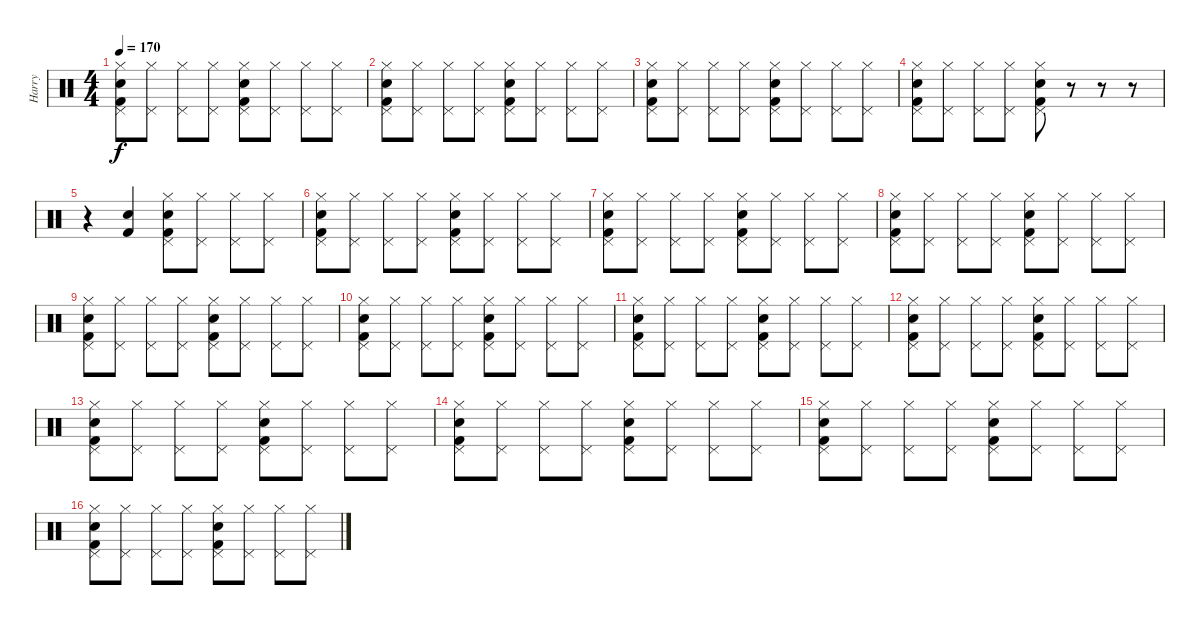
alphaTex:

\track ("Harry" "Harry") {instrument percussion}
\staff {score}
\articulation defaults
\ts (4 4)
\tempo 170
\clef neutral
\ks c
("Hi-Hat (closed)" "Pedal Hi-Hat (hit)" "Kick (hit) 2" "Snare (hit) 2").8{dy f} ("Hi-Hat (closed)" "Pedal Hi-Hat (hit)").8 ("Hi-Hat (closed)" "Pedal Hi-Hat (hit)").8 ("Hi-Hat (closed)" "Pedal Hi-Hat (hit)").8 ("Hi-Hat (closed)" "Pedal Hi-Hat (hit)" "Kick (hit) 2" "Snare (hit) 2").8 ("Hi-Hat (closed)" "Pedal Hi-Hat (hit)").8 ("Hi-Hat (closed)" "Pedal Hi-Hat (hit)").8 ("Hi-Hat (closed)" "Pedal Hi-Hat (hit)").8 |
("Hi-Hat (closed)" "Pedal Hi-Hat (hit)" "Kick (hit) 2" "Snare (hit) 2").8 ("Hi-Hat (closed)" "Pedal Hi-Hat (hit)").8 ("Hi-Hat (closed)" "Pedal Hi-Hat (hit)").8 ("Hi-Hat (closed)" "Pedal Hi-Hat (hit)").8 ("Hi-Hat (closed)" "Pedal Hi-Hat (hit)" "Kick (hit) 2" "Snare (hit) 2").8 ("Hi-Hat (closed)" "Pedal Hi-Hat (hit)").8 ("Hi-Hat (closed)" "Pedal Hi-Hat (hit)").8 ("Hi-Hat (closed)" "Pedal Hi-Hat (hit)").8 |
("Hi-Hat (closed)" "Pedal Hi-Hat (hit)" "Kick (hit) 2" "Snare (hit) 2").8 ("Hi-Hat (closed)" "Pedal Hi-Hat (hit)").8 ("Hi-Hat (closed)" "Pedal Hi-Hat (hit)").8 ("Hi-Hat (closed)" "Pedal Hi-Hat (hit)").8 ("Hi-Hat (closed)" "Pedal Hi-Hat (hit)" "Kick (hit) 2" "Snare (hit) 2").8 ("Hi-Hat (closed)" "Pedal Hi-Hat (hit)").8 ("Hi-Hat (closed)" "Pedal Hi-Hat (hit)").8 ("Hi-Hat (closed)" "Pedal Hi-Hat (hit)").8 |
("Hi-Hat (closed)" "Pedal Hi-Hat (hit)" "Kick (hit) 2" "Snare (hit) 2").8 ("Hi-Hat (closed)" "Pedal Hi-Hat (hit)").8 ("Hi-Hat (closed)" "Pedal Hi-Hat (hit)").8 ("Hi-Hat (closed)" "Pedal Hi-Hat (hit)").8 ("Hi-Hat (closed)" "Pedal Hi-Hat (hit)" "Kick (hit) 2" "Snare (hit) 2").8 r.8 r.8 r.8 |
r.4 ("Snare (hit) 2" "Kick (hit) 2").4 ("Hi-Hat (closed)" "Pedal Hi-Hat (hit)" "Kick (hit) 2" "Snare (hit) 2").8 ("Hi-Hat (closed)" "Pedal Hi-Hat (hit)").8 ("Hi-Hat (closed)" "Pedal Hi-Hat (hit)").8 ("Hi-Hat (closed)" "Pedal Hi-Hat (hit)").8 |
("Hi-Hat (closed)" "Pedal Hi-Hat (hit)" "Kick (hit) 2" "Snare (hit) 2").8 ("Hi-Hat (closed)" "Pedal Hi-Hat (hit)").8 ("Hi-Hat (closed)" "Pedal Hi-Hat (hit)").8 ("Hi-Hat (closed)" "Pedal Hi-Hat (hit)").8 ("Hi-Hat (closed)" "Pedal Hi-Hat (hit)" "Kick (hit) 2" "Snare (hit) 2").8 ("Hi-Hat (closed)" "Pedal Hi-Hat (hit)").8 ("Hi-Hat (closed)" "Pedal Hi-Hat (hit)").8 ("Hi-Hat (closed)" "Pedal Hi-Hat (hit)").8 |
("Hi-Hat (closed)" "Pedal Hi-Hat (hit)" "Kick (hit) 2" "Snare (hit) 2").8 ("Hi-Hat (closed)" "Pedal Hi-Hat (hit)").8 ("Hi-Hat (closed)" "Pedal Hi-Hat (hit)").8 ("Hi-Hat (closed)" "Pedal Hi-Hat (hit)").8 ("Hi-Hat (closed)" "Pedal Hi-Hat (hit)" "Kick (hit) 2" "Snare (hit) 2").8 ("Hi-Hat (closed)" "Pedal Hi-Hat (hit)").8 ("Hi-Hat (closed)" "Pedal Hi-Hat (hit)").8 ("Hi-Hat (closed)" "Pedal Hi-Hat (hit)").8 |
("Hi-Hat (closed)" "Pedal Hi-Hat (hit)" "Kick (hit) 2" "Snare (hit) 2").8 ("Hi-Hat (closed)" "Pedal Hi-Hat (hit)").8 ("Hi-Hat (closed)" "Pedal Hi-Hat (hit)").8 ("Hi-Hat (closed)" "Pedal Hi-Hat (hit)").8 ("Hi-Hat (closed)" "Pedal Hi-Hat (hit)" "Kick (hit) 2" "Snare (hit) 2").8 ("Hi-Hat (closed)" "Pedal Hi-Hat (hit)").8 ("Hi-Hat (closed)" "Pedal Hi-Hat (hit)").8 ("Hi-Hat (closed)" "Pedal Hi-Hat (hit)").8 |
("Hi-Hat (closed)" "Pedal Hi-Hat (hit)" "Kick (hit) 2" "Snare (hit) 2").8 ("Hi-Hat (closed)" "Pedal Hi-Hat (hit)").8 ("Hi-Hat (closed)" "Pedal Hi-Hat (hit)").8 ("Hi-Hat (closed)" "Pedal Hi-Hat (hit)").8 ("Hi-Hat (closed)" "Pedal Hi-Hat (hit)" "Kick (hit) 2" "Snare (hit) 2").8 ("Hi-Hat (closed)" "Pedal Hi-Hat (hit)").8 ("Hi-Hat (closed)" "Pedal Hi-Hat (hit)").8 ("Hi-Hat (closed)" "Pedal Hi-Hat (hit)").8 |
("Hi-Hat (closed)" "Pedal Hi-Hat (hit)" "Kick (hit) 2" "Snare (hit) 2").8 ("Hi-Hat (closed)" "Pedal Hi-Hat (hit)").8 ("Hi-Hat (closed)" "Pedal Hi-Hat (hit)").8 ("Hi-Hat (closed)" "Pedal Hi-Hat (hit)").8 ("Hi-Hat (closed)" "Pedal Hi-Hat (hit)" "Kick (hit) 2" "Snare (hit) 2").8 ("Hi-Hat (closed)" "Pedal Hi-Hat (hit)").8 ("Hi-Hat (closed)" "Pedal Hi-Hat (hit)").8 ("Hi-Hat (closed)" "Pedal Hi-Hat (hit)").8 |
("Hi-Hat (closed)" "Pedal Hi-Hat (hit)" "Kick (hit) 2" "Snare (hit) 2").8 ("Hi-Hat (closed)" "Pedal Hi-Hat (hit)").8 ("Hi-Hat (closed)" "Pedal Hi-Hat (hit)").8 ("Hi-Hat (closed)" "Pedal Hi-Hat (hit)").8 ("Hi-Hat (closed)" "Pedal Hi-Hat (hit)" "Kick (hit) 2" "Snare (hit) 2").8 ("Hi-Hat (closed)" "Pedal Hi-Hat (hit)").8 ("Hi-Hat (closed)" "Pedal Hi-Hat (hit)").8 ("Hi-Hat (closed)" "Pedal Hi-Hat (hit)").8 |
("Hi-Hat (closed)" "Pedal Hi-Hat (hit)" "Kick (hit) 2" "Snare (hit) 2").8 ("Hi-Hat (closed)" "Pedal Hi-Hat (hit)").8 ("Hi-Hat (closed)" "Pedal Hi-Hat (hit)").8 ("Hi-Hat (closed)" "Pedal Hi-Hat (hit)").8 ("Hi-Hat (closed)" "Pedal Hi-Hat (hit)" "Kick (hit) 2" "Snare (hit) 2").8 ("Hi-Hat (closed)" "Pedal Hi-Hat (hit)").8 ("Hi-Hat (closed)" "Pedal Hi-Hat (hit)").8 ("Hi-Hat (closed)" "Pedal Hi-Hat (hit)").8 |
("Hi-Hat (closed)" "Pedal Hi-Hat (hit)" "Kick (hit) 2" "Snare (hit) 2").8 ("Hi-Hat (closed)" "Pedal Hi-Hat (hit)").8 ("Hi-Hat (closed)" "Pedal Hi-Hat (hit)").8 ("Hi-Hat (closed)" "Pedal Hi-Hat (hit)").8 ("Hi-Hat (closed)" "Pedal Hi-Hat (hit)" "Kick (hit) 2" "Snare (hit) 2").8 ("Hi-Hat (closed)" "Pedal Hi-Hat (hit)").8 ("Hi-Hat (closed)" "Pedal Hi-Hat (hit)").8 ("Hi-Hat (closed)" "Pedal Hi-Hat (hit)").8 |
("Hi-Hat (closed)" "Pedal Hi-Hat (hit)" "Kick (hit) 2" "Snare (hit) 2").8 ("Hi-Hat (closed)" "Pedal Hi-Hat (hit)").8 ("Hi-Hat (closed)" "Pedal Hi-Hat (hit)").8 ("Hi-Hat (closed)" "Pedal Hi-Hat (hit)").8 ("Hi-Hat (closed)" "Pedal Hi-Hat (hit)" "Kick (hit) 2" "Snare (hit) 2").8 ("Hi-Hat (closed)" "Pedal Hi-Hat (hit)").8 ("Hi-Hat (closed)" "Pedal Hi-Hat (hit)").8 ("Hi-Hat (closed)" "Pedal Hi-Hat (hit)").8 |
("Hi-Hat (closed)" "Pedal Hi-Hat (hit)" "Kick (hit) 2" "Snare (hit) 2").8 ("Hi-Hat (closed)" "Pedal Hi-Hat (hit)").8 ("Hi-Hat (closed)" "Pedal Hi-Hat (hit)").8 ("Hi-Hat (closed)" "Pedal Hi-Hat (hit)").8 ("Hi-Hat (closed)" "Pedal Hi-Hat (hit)" "Kick (hit) 2" "Snare (hit) 2").8 ("Hi-Hat (closed)" "Pedal Hi-Hat (hit)").8 ("Hi-Hat (closed)" "Pedal Hi-Hat (hit)").8 ("Hi-Hat (closed)" "Pedal Hi-Hat (hit)").8 |
("Hi-Hat (closed)" "Pedal Hi-Hat (hit)" "Kick (hit) 2" "Snare (hit) 2").8 ("Hi-Hat (closed)" "Pedal Hi-Hat (hit)").8 ("Hi-Hat (closed)" "Pedal Hi-Hat (hit)").8 ("Hi-Hat (closed)" "Pedal Hi-Hat (hit)").8 ("Hi-Hat (closed)" "Pedal Hi-Hat (hit)" "Kick (hit) 2" "Snare (hit) 2").8 ("Hi-Hat (closed)" "Pedal Hi-Hat (hit)").8 ("Hi-Hat (closed)" "Pedal Hi-Hat (hit)").8 ("Hi-Hat (closed)" "Pedal Hi-Hat (hit)").8
